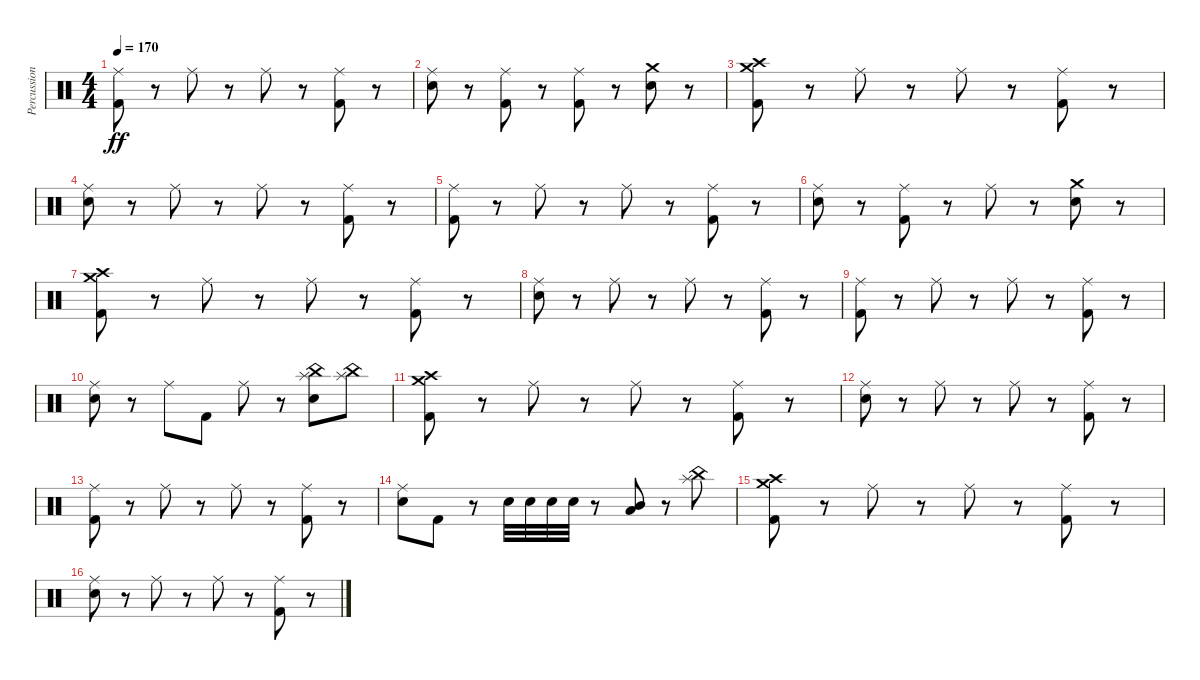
\track ("Percussion" "Percussion") {instrument percussion}
\staff {score}
\articulation defaults
\ts (4 4)
\tempo 170
\clef neutral
\ks c
("Kick (hit) 2" "Ride (middle)").8{dy ff} r.8 "Ride (middle)".8 r.8 "Ride (middle)".8 r.8 ("Kick (hit) 2" "Ride (middle)").8 r.8 |
("Electric Snare (hit)" "Ride (middle)").8 r.8 ("Kick (hit) 2" "Ride (middle)").8 r.8 ("Kick (hit) 2" "Ride (middle)").8 r.8 ("Electric Snare (hit)" "Crash medium (hit)").8 r.8 |
("Kick (hit) 2" "Crash high (hit)" "Crash medium (hit)").8 r.8 "Ride (middle)".8 r.8 "Ride (middle)".8 r.8 ("Kick (hit) 2" "Ride (middle)").8 r.8 |
("Electric Snare (hit)" "Ride (middle)").8 r.8 "Ride (middle)".8 r.8 "Ride (middle)".8 r.8 ("Kick (hit) 2" "Ride (middle)").8 r.8 |
("Kick (hit) 2" "Ride (middle)").8 r.8 "Ride (middle)".8 r.8 "Ride (middle)".8 r.8 ("Kick (hit) 2" "Ride (middle)").8 r.8 |
("Electric Snare (hit)" "Ride (middle)").8 r.8 ("Kick (hit) 2" "Ride (middle)").8 r.8 "Ride (middle)".8 r.8 ("Electric Snare (hit)" "Crash medium (hit)").8 r.8 |
("Kick (hit) 2" "Crash high (hit)" "Crash medium (hit)").8 r.8 "Ride (middle)".8 r.8 "Ride (middle)".8 r.8 ("Kick (hit) 2" "Ride (middle)").8 r.8 |
("Electric Snare (hit)" "Ride (middle)").8 r.8 "Ride (middle)".8 r.8 "Ride (middle)".8 r.8 ("Kick (hit) 2" "Ride (middle)").8 r.8 |
("Kick (hit) 2" "Ride (middle)").8 r.8 "Ride (middle)".8 r.8 "Ride (middle)".8 r.8 ("Kick (hit) 2" "Ride (middle)").8 r.8 |
("Electric Snare (hit)" "Ride (middle)").8 r.8 "Ride (middle)".8 "Kick (hit) 2".8 "Ride (middle)".8 r.8 ("Electric Snare (hit)" "China (hit)" "Splash (hit)").8 ("China (hit)" "Splash (hit)").8 |
("Kick (hit) 2" "Crash high (hit)" "Crash medium (hit)").8 r.8 "Ride (middle)".8 r.8 "Ride (middle)".8 r.8 ("Kick (hit) 2" "Ride (middle)").8 r.8 |
("Electric Snare (hit)" "Ride (middle)").8 r.8 "Ride (middle)".8 r.8 "Ride (middle)".8 r.8 ("Kick (hit) 2" "Ride (middle)").8 r.8 |
("Kick (hit) 2" "Ride (middle)").8 r.8 "Ride (middle)".8 r.8 "Ride (middle)".8 r.8 ("Kick (hit) 2" "Ride (middle)").8 r.8 |
("Electric Snare (hit)" "Ride (middle)").8 "Kick (hit) 2".8 r.8 "Electric Snare (hit)".32 "Electric Snare (hit)".32 "Electric Snare (hit)".32 "Electric Snare (hit)".32 r.8 ("Mid Tom (hit)" "Low Tom (hit)").8 r.8 ("China (hit)" "Splash (hit)").8 |
("Kick (hit) 2" "Crash high (hit)" "Crash medium (hit)").8 r.8 "Ride (middle)".8 r.8 "Ride (middle)".8 r.8 ("Kick (hit) 2" "Ride (middle)").8 r.8 |
("Electric Snare (hit)" "Ride (middle)").8 r.8 "Ride (middle)".8 r.8 "Ride (middle)".8 r.8 ("Kick (hit) 2" "Ride (middle)").8 r.8
